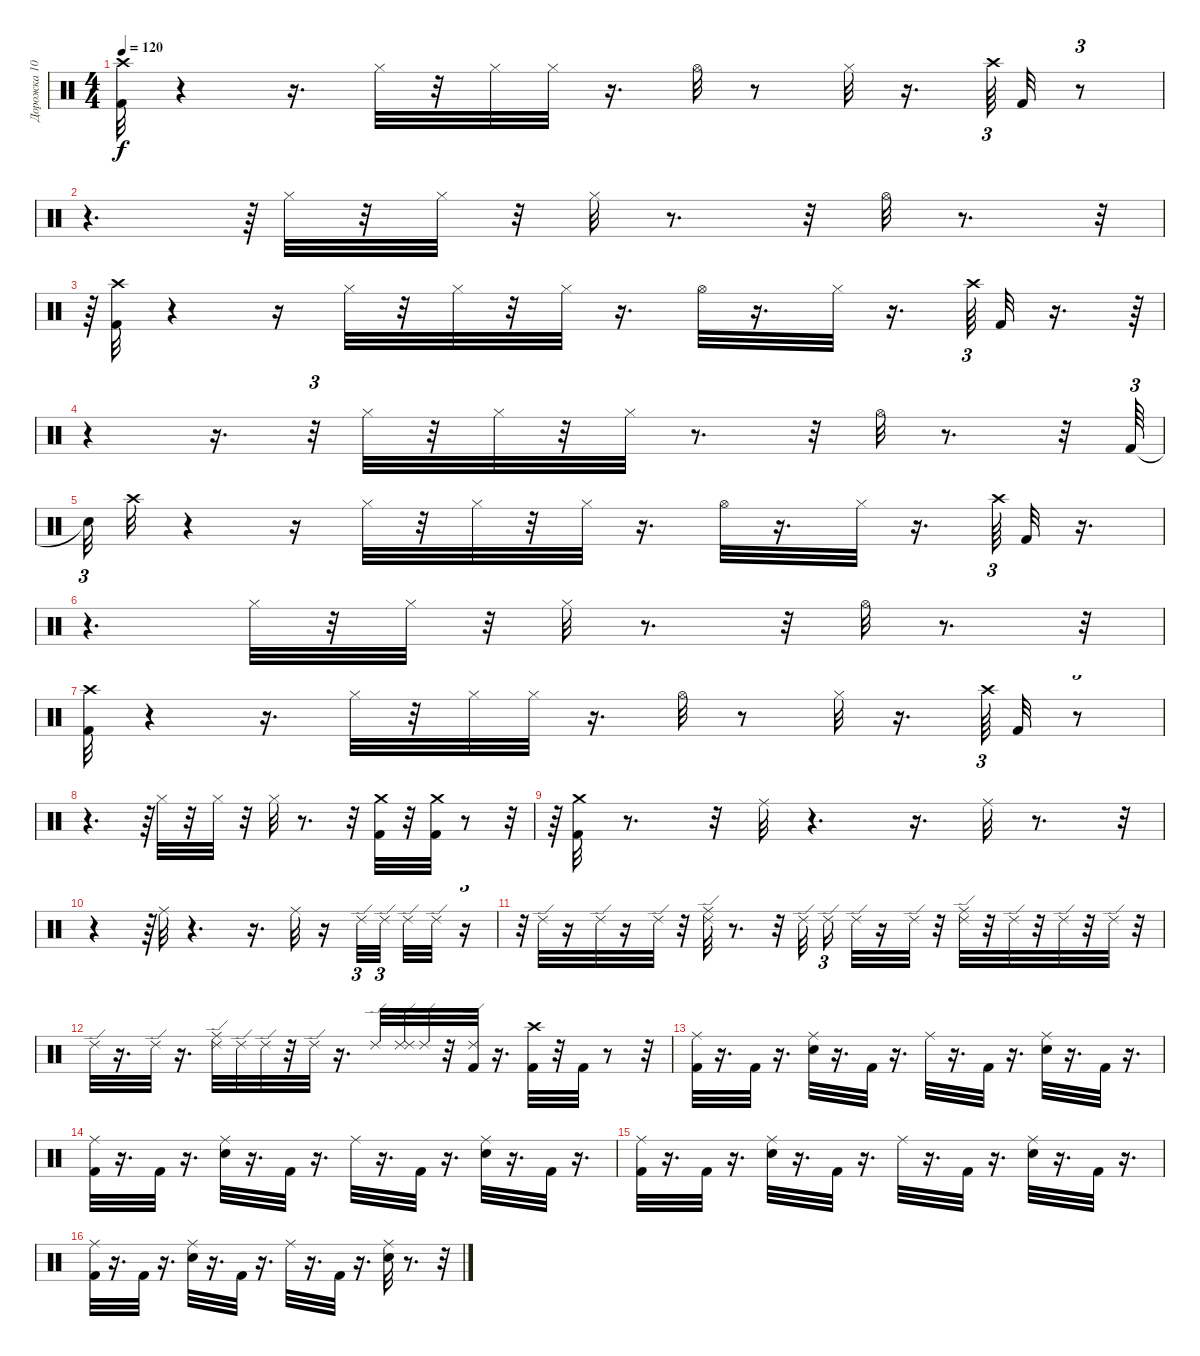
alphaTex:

\track ("Дорожка 10" "Дорожка 10") {instrument percussion}
\staff {score}
\articulation defaults
\ts (4 4)
\tempo 120
\clef neutral
\ks c
("Kick (hit) 2" "Crash high (hit)").32{dy f} r.4 r.16{d} "Hi-Hat (closed)".32 r.32 "Hi-Hat (closed)".32 "Hi-Hat (closed)".32 r.16{d} "Hi-Hat (open)".32 r.8 "Hi-Hat (closed)".32 r.16{d} "Crash high (hit)".64{tu (3 2)} "Kick (hit) 2".32 r.8{tu (3 2)} |
r.4{d} r.64{tu (3 2)} "Hi-Hat (closed)".32 r.32 "Hi-Hat (closed)".32 r.32 "Hi-Hat (closed)".32 r.8{d} r.32 "Hi-Hat (open)".32 r.8{d} r.32{tu (3 2)} |
r.64{tu (3 2)} ("Kick (hit) 2" "Crash high (hit)").32 r.4 r.16 "Hi-Hat (closed)".32 r.32 "Hi-Hat (closed)".32 r.32 "Hi-Hat (closed)".32 r.16{d} "Hi-Hat (open)".32 r.16{d} "Hi-Hat (closed)".32 r.16{d} "Crash high (hit)".64{tu (3 2)} "Kick (hit) 2".32 r.16{d} r.64{tu (3 2)} |
r.4 r.16{d} r.32{tu (3 2)} "Hi-Hat (closed)".32 r.32 "Hi-Hat (closed)".32 r.32 "Hi-Hat (closed)".32 r.8{d} r.32 "Hi-Hat (open)".32 r.8{d} r.32 "Kick (hit) 2".64{tu (3 2)} |
"Snare (hit)"{t}.32{tu (3 2)} "Crash high (hit)".32 r.4 r.16 "Hi-Hat (closed)".32 r.32 "Hi-Hat (closed)".32 r.32 "Hi-Hat (closed)".32 r.16{d} "Hi-Hat (open)".32 r.16{d} "Hi-Hat (closed)".32 r.16{d} "Crash high (hit)".64{tu (3 2)} "Kick (hit) 2".32 r.16{d} |
r.4{d} "Hi-Hat (closed)".32 r.32 "Hi-Hat (closed)".32 r.32 "Hi-Hat (closed)".32 r.8{d} r.32 "Hi-Hat (open)".32 r.8{d} r.32 |
("Kick (hit) 2" "Crash high (hit)").32 r.4 r.16{d} "Hi-Hat (closed)".32 r.32 "Hi-Hat (closed)".32 "Hi-Hat (closed)".32 r.16{d} "Hi-Hat (open)".32 r.8 "Hi-Hat (closed)".32 r.16{d} "Crash high (hit)".64{tu (3 2)} "Kick (hit) 2".32 r.8{tu (3 2)} |
r.4{d} r.64{tu (3 2)} "Hi-Hat (closed)".32 r.32 "Hi-Hat (closed)".32 r.32 "Hi-Hat (closed)".32 r.8{d} r.32 ("Crash medium (hit)" "Kick (hit) 2").32 r.32 ("Crash medium (hit)" "Kick (hit) 2").32 r.8 r.32{tu (3 2)} |
r.64{tu (3 2)} ("Crash medium (hit)" "Kick (hit) 2").32 r.8{d} r.32 "Ride (middle)".32 r.4{d} r.16{d} "Ride (middle)".32 r.8{d} r.32{tu (3 2)} |
r.4 r.64{tu (3 2)} "Ride (middle)".32 r.4{d} r.16{d} "Ride (middle)".32 r.16 "Ride (edge) 2".32{tu (3 2)} "Ride (edge) 2".32{tu (3 2)} "Ride (edge) 2".32 "Ride (edge) 2".32 r.16{tu (3 2)} |
r.32{tu (3 2)} "Ride (edge) 2".32 r.16 "Ride (edge) 2".32 r.16 "Ride (edge) 2".32 r.32 ("Ride (middle)" "Ride (edge) 2").32 r.8{d} r.32 "Ride (edge) 2".32 "Ride (edge) 2".16{tu (3 2)} "Ride (edge) 2".32 r.16 "Ride (edge) 2".32 r.32 ("Ride (middle)" "Ride (edge) 2").32 r.32 "Ride (edge) 2".32 r.32 "Ride (edge) 2".32 r.32 "Ride (edge) 2".32 r.32 |
"Ride (edge) 2".32 r.16{d} "Ride (edge) 2".32 r.16{d} ("Ride (middle)" "Ride (edge) 2").32 "Ride (edge) 2".32 "Ride (edge) 2".32 r.32 "Ride (edge) 2".32 r.16{d} "Ride (edge) 2".32 ("Ride (edge) 2" "Ride (edge) 2").32 "Ride (edge) 2".32 r.32 ("Ride (edge) 2" "Kick (hit) 2").32 r.16{d} ("Kick (hit) 2" "Crash high (hit)").32 r.32 "Kick (hit) 2".32 r.8 r.32 |
("Ride (middle)" "Kick (hit) 2").32 r.16{d} "Kick (hit) 2".32 r.16{d} ("Snare (hit) 2" "Ride (middle)").32 r.16{d} "Kick (hit) 2".32 r.16{d} "Ride (middle)".32 r.16{d} "Kick (hit) 2".32 r.16{d} ("Snare (hit) 2" "Ride (middle)").32 r.16{d} "Kick (hit) 2".32 r.16{d} |
("Kick (hit) 2" "Ride (middle)").32 r.16{d} "Kick (hit) 2".32 r.16{d} ("Snare (hit) 2" "Ride (middle)").32 r.16{d} "Kick (hit) 2".32 r.16{d} "Ride (middle)".32 r.16{d} "Kick (hit) 2".32 r.16{d} ("Snare (hit) 2" "Ride (middle)").32 r.16{d} "Kick (hit) 2".32 r.16{d} |
("Kick (hit) 2" "Ride (middle)").32 r.16{d} "Kick (hit) 2".32 r.16{d} ("Snare (hit) 2" "Ride (middle)").32 r.16{d} "Kick (hit) 2".32 r.16{d} "Ride (middle)".32 r.16{d} "Kick (hit) 2".32 r.16{d} ("Ride (middle)" "Snare (hit) 2").32 r.16{d} "Kick (hit) 2".32 r.16{d} |
("Kick (hit) 2" "Ride (middle)").32 r.16{d} "Kick (hit) 2".32 r.16{d} ("Snare (hit) 2" "Ride (middle)").32 r.16{d} "Kick (hit) 2".32 r.16{d} "Ride (middle)".32 r.16{d} "Kick (hit) 2".32 r.16{d} ("Snare (hit) 2" "Ride (middle)").32 r.8{d} r.32
